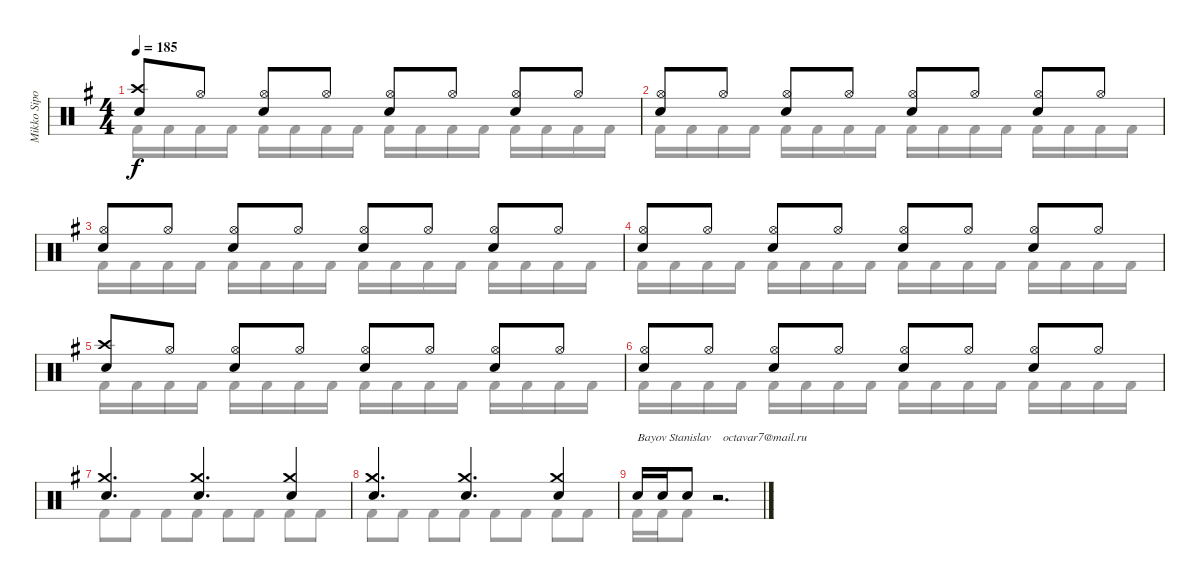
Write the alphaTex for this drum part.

\track ("Mikko Sipola (drums)" "Mikko Sipo") {instrument percussion}
\staff {score}
\articulation defaults
\voice
\ts (4 4)
\tempo 185
\clef neutral
\ks eminor
("Crash high (hit)" "Electric Snare (hit)").8{dy f} "Hi-Hat (open)".8 ("Hi-Hat (open)" "Electric Snare (hit)").8 "Hi-Hat (open)".8 ("Hi-Hat (open)" "Electric Snare (hit)").8 "Hi-Hat (open)".8 ("Hi-Hat (open)" "Electric Snare (hit)").8 "Hi-Hat (open)".8 |
("Hi-Hat (open)" "Electric Snare (hit)").8 "Hi-Hat (open)".8 ("Hi-Hat (open)" "Electric Snare (hit)").8 "Hi-Hat (open)".8 ("Hi-Hat (open)" "Electric Snare (hit)").8 "Hi-Hat (open)".8 ("Hi-Hat (open)" "Electric Snare (hit)").8 "Hi-Hat (open)".8 |
("Hi-Hat (open)" "Electric Snare (hit)").8 "Hi-Hat (open)".8 ("Hi-Hat (open)" "Electric Snare (hit)").8 "Hi-Hat (open)".8 ("Hi-Hat (open)" "Electric Snare (hit)").8 "Hi-Hat (open)".8 ("Hi-Hat (open)" "Electric Snare (hit)").8 "Hi-Hat (open)".8 |
("Hi-Hat (open)" "Electric Snare (hit)").8 "Hi-Hat (open)".8 ("Hi-Hat (open)" "Electric Snare (hit)").8 "Hi-Hat (open)".8 ("Hi-Hat (open)" "Electric Snare (hit)").8 "Hi-Hat (open)".8 ("Hi-Hat (open)" "Electric Snare (hit)").8 "Hi-Hat (open)".8 |
("Crash high (hit)" "Electric Snare (hit)").8 "Hi-Hat (open)".8 ("Hi-Hat (open)" "Electric Snare (hit)").8 "Hi-Hat (open)".8 ("Hi-Hat (open)" "Electric Snare (hit)").8 "Hi-Hat (open)".8 ("Hi-Hat (open)" "Electric Snare (hit)").8 "Hi-Hat (open)".8 |
("Hi-Hat (open)" "Electric Snare (hit)").8 "Hi-Hat (open)".8 ("Hi-Hat (open)" "Electric Snare (hit)").8 "Hi-Hat (open)".8 ("Hi-Hat (open)" "Electric Snare (hit)").8 "Hi-Hat (open)".8 ("Hi-Hat (open)" "Electric Snare (hit)").8 "Hi-Hat (open)".8 |
("Crash medium (hit)" "Electric Snare (hit)").4{d} ("Crash medium (hit)" "Electric Snare (hit)").4{d} ("Crash medium (hit)" "Electric Snare (hit)").4 |
("Crash medium (hit)" "Electric Snare (hit)").4{d} ("Crash medium (hit)" "Electric Snare (hit)").4{d} ("Crash medium (hit)" "Electric Snare (hit)").4 |
"Electric Snare (hit)".16{txt "Bayov Stanislav    octavar7@mail.ru"} "Electric Snare (hit)".16 "Electric Snare (hit)".8 r.2{d}
\voice
\clef neutral
\ottava regular
\simile none
\ks eminor "Kick (hit) 2".16{dy f} "Kick (hit) 2".16 "Kick (hit) 2".16 "Kick (hit) 2".16 "Kick (hit) 2".16 "Kick (hit) 2".16 "Kick (hit) 2".16 "Kick (hit) 2".16 "Kick (hit) 2".16 "Kick (hit) 2".16 "Kick (hit) 2".16 "Kick (hit) 2".16 "Kick (hit) 2".16 "Kick (hit) 2".16 "Kick (hit) 2".16 "Kick (hit) 2".16
|
"Kick (hit) 2".16 "Kick (hit) 2".16 "Kick (hit) 2".16 "Kick (hit) 2".16 "Kick (hit) 2".16 "Kick (hit) 2".16 "Kick (hit) 2".16 "Kick (hit) 2".16 "Kick (hit) 2".16 "Kick (hit) 2".16 "Kick (hit) 2".16 "Kick (hit) 2".16 "Kick (hit) 2".16 "Kick (hit) 2".16 "Kick (hit) 2".16 "Kick (hit) 2".16 |
"Kick (hit) 2".16 "Kick (hit) 2".16 "Kick (hit) 2".16 "Kick (hit) 2".16 "Kick (hit) 2".16 "Kick (hit) 2".16 "Kick (hit) 2".16 "Kick (hit) 2".16 "Kick (hit) 2".16 "Kick (hit) 2".16 "Kick (hit) 2".16 "Kick (hit) 2".16 "Kick (hit) 2".16 "Kick (hit) 2".16 "Kick (hit) 2".16 "Kick (hit) 2".16 |
"Kick (hit) 2".16 "Kick (hit) 2".16 "Kick (hit) 2".16 "Kick (hit) 2".16 "Kick (hit) 2".16 "Kick (hit) 2".16 "Kick (hit) 2".16 "Kick (hit) 2".16 "Kick (hit) 2".16 "Kick (hit) 2".16 "Kick (hit) 2".16 "Kick (hit) 2".16 "Kick (hit) 2".16 "Kick (hit) 2".16 "Kick (hit) 2".16 "Kick (hit) 2".16 |
"Kick (hit) 2".16 "Kick (hit) 2".16 "Kick (hit) 2".16 "Kick (hit) 2".16 "Kick (hit) 2".16 "Kick (hit) 2".16 "Kick (hit) 2".16 "Kick (hit) 2".16 "Kick (hit) 2".16 "Kick (hit) 2".16 "Kick (hit) 2".16 "Kick (hit) 2".16 "Kick (hit) 2".16 "Kick (hit) 2".16 "Kick (hit) 2".16 "Kick (hit) 2".16 |
"Kick (hit) 2".16 "Kick (hit) 2".16 "Kick (hit) 2".16 "Kick (hit) 2".16 "Kick (hit) 2".16 "Kick (hit) 2".16 "Kick (hit) 2".16 "Kick (hit) 2".16 "Kick (hit) 2".16 "Kick (hit) 2".16 "Kick (hit) 2".16 "Kick (hit) 2".16 "Kick (hit) 2".16 "Kick (hit) 2".16 "Kick (hit) 2".16 "Kick (hit) 2".16 |
"Kick (hit) 2".8 "Kick (hit) 2".8 "Kick (hit) 2".8 "Kick (hit) 2".8 "Kick (hit) 2".8 "Kick (hit) 2".8 "Kick (hit) 2".8 "Kick (hit) 2".8 |
"Kick (hit) 2".8 "Kick (hit) 2".8 "Kick (hit) 2".8 "Kick (hit) 2".8 "Kick (hit) 2".8 "Kick (hit) 2".8 "Kick (hit) 2".8 "Kick (hit) 2".8 |
"Kick (hit) 2".16 "Kick (hit) 2".16 "Kick (hit) 2".8 r.2{d}
